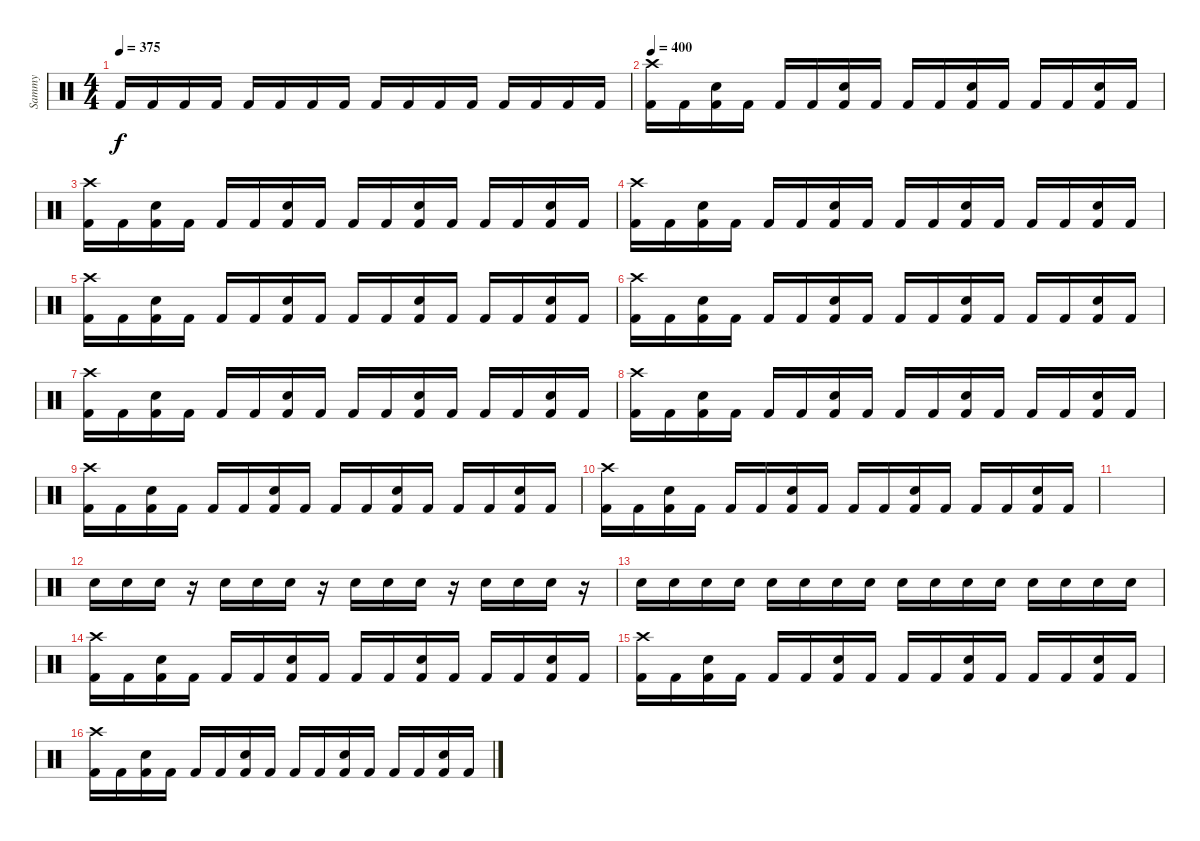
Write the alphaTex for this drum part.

\track ("Sammy" "Sammy") {instrument percussion}
\staff {score}
\articulation defaults
\ts (4 4)
\tempo 375
\clef neutral
\ks c "Kick (hit) 2".16{dy f} "Kick (hit) 2".16 "Kick (hit) 2".16 "Kick (hit) 2".16 "Kick (hit) 2".16 "Kick (hit) 2".16 "Kick (hit) 2".16 "Kick (hit) 2".16 "Kick (hit) 2".16 "Kick (hit) 2".16 "Kick (hit) 2".16 "Kick (hit) 2".16 "Kick (hit) 2".16 "Kick (hit) 2".16 "Kick (hit) 2".16 "Kick (hit) 2".16
|
\tempo 400
("Crash high (hit)" "Kick (hit) 2").16 "Kick (hit) 2".16 ("Electric Snare (hit)" "Kick (hit) 2").16 "Kick (hit) 2".16 "Kick (hit) 2".16 "Kick (hit) 2".16 ("Electric Snare (hit)" "Kick (hit) 2").16 "Kick (hit) 2".16 "Kick (hit) 2".16 "Kick (hit) 2".16 ("Electric Snare (hit)" "Kick (hit) 2").16 "Kick (hit) 2".16 "Kick (hit) 2".16 "Kick (hit) 2".16 ("Electric Snare (hit)" "Kick (hit) 2").16 "Kick (hit) 2".16 |
("Crash high (hit)" "Kick (hit) 2").16 "Kick (hit) 2".16 ("Electric Snare (hit)" "Kick (hit) 2").16 "Kick (hit) 2".16 "Kick (hit) 2".16 "Kick (hit) 2".16 ("Electric Snare (hit)" "Kick (hit) 2").16 "Kick (hit) 2".16 "Kick (hit) 2".16 "Kick (hit) 2".16 ("Electric Snare (hit)" "Kick (hit) 2").16 "Kick (hit) 2".16 "Kick (hit) 2".16 "Kick (hit) 2".16 ("Electric Snare (hit)" "Kick (hit) 2").16 "Kick (hit) 2".16 |
("Crash high (hit)" "Kick (hit) 2").16 "Kick (hit) 2".16 ("Electric Snare (hit)" "Kick (hit) 2").16 "Kick (hit) 2".16 "Kick (hit) 2".16 "Kick (hit) 2".16 ("Electric Snare (hit)" "Kick (hit) 2").16 "Kick (hit) 2".16 "Kick (hit) 2".16 "Kick (hit) 2".16 ("Electric Snare (hit)" "Kick (hit) 2").16 "Kick (hit) 2".16 "Kick (hit) 2".16 "Kick (hit) 2".16 ("Electric Snare (hit)" "Kick (hit) 2").16 "Kick (hit) 2".16 |
("Crash high (hit)" "Kick (hit) 2").16 "Kick (hit) 2".16 ("Electric Snare (hit)" "Kick (hit) 2").16 "Kick (hit) 2".16 "Kick (hit) 2".16 "Kick (hit) 2".16 ("Electric Snare (hit)" "Kick (hit) 2").16 "Kick (hit) 2".16 "Kick (hit) 2".16 "Kick (hit) 2".16 ("Electric Snare (hit)" "Kick (hit) 2").16 "Kick (hit) 2".16 "Kick (hit) 2".16 "Kick (hit) 2".16 ("Electric Snare (hit)" "Kick (hit) 2").16 "Kick (hit) 2".16 |
("Crash high (hit)" "Kick (hit) 2").16 "Kick (hit) 2".16 ("Electric Snare (hit)" "Kick (hit) 2").16 "Kick (hit) 2".16 "Kick (hit) 2".16 "Kick (hit) 2".16 ("Electric Snare (hit)" "Kick (hit) 2").16 "Kick (hit) 2".16 "Kick (hit) 2".16 "Kick (hit) 2".16 ("Electric Snare (hit)" "Kick (hit) 2").16 "Kick (hit) 2".16 "Kick (hit) 2".16 "Kick (hit) 2".16 ("Electric Snare (hit)" "Kick (hit) 2").16 "Kick (hit) 2".16 |
("Crash high (hit)" "Kick (hit) 2").16 "Kick (hit) 2".16 ("Electric Snare (hit)" "Kick (hit) 2").16 "Kick (hit) 2".16 "Kick (hit) 2".16 "Kick (hit) 2".16 ("Electric Snare (hit)" "Kick (hit) 2").16 "Kick (hit) 2".16 "Kick (hit) 2".16 "Kick (hit) 2".16 ("Electric Snare (hit)" "Kick (hit) 2").16 "Kick (hit) 2".16 "Kick (hit) 2".16 "Kick (hit) 2".16 ("Electric Snare (hit)" "Kick (hit) 2").16 "Kick (hit) 2".16 |
("Crash high (hit)" "Kick (hit) 2").16 "Kick (hit) 2".16 ("Electric Snare (hit)" "Kick (hit) 2").16 "Kick (hit) 2".16 "Kick (hit) 2".16 "Kick (hit) 2".16 ("Electric Snare (hit)" "Kick (hit) 2").16 "Kick (hit) 2".16 "Kick (hit) 2".16 "Kick (hit) 2".16 ("Electric Snare (hit)" "Kick (hit) 2").16 "Kick (hit) 2".16 "Kick (hit) 2".16 "Kick (hit) 2".16 ("Electric Snare (hit)" "Kick (hit) 2").16 "Kick (hit) 2".16 |
("Crash high (hit)" "Kick (hit) 2").16 "Kick (hit) 2".16 ("Electric Snare (hit)" "Kick (hit) 2").16 "Kick (hit) 2".16 "Kick (hit) 2".16 "Kick (hit) 2".16 ("Electric Snare (hit)" "Kick (hit) 2").16 "Kick (hit) 2".16 "Kick (hit) 2".16 "Kick (hit) 2".16 ("Electric Snare (hit)" "Kick (hit) 2").16 "Kick (hit) 2".16 "Kick (hit) 2".16 "Kick (hit) 2".16 ("Electric Snare (hit)" "Kick (hit) 2").16 "Kick (hit) 2".16 |
("Crash high (hit)" "Kick (hit) 2").16 "Kick (hit) 2".16 ("Electric Snare (hit)" "Kick (hit) 2").16 "Kick (hit) 2".16 "Kick (hit) 2".16 "Kick (hit) 2".16 ("Electric Snare (hit)" "Kick (hit) 2").16 "Kick (hit) 2".16 "Kick (hit) 2".16 "Kick (hit) 2".16 ("Electric Snare (hit)" "Kick (hit) 2").16 "Kick (hit) 2".16 "Kick (hit) 2".16 "Kick (hit) 2".16 ("Electric Snare (hit)" "Kick (hit) 2").16 "Kick (hit) 2".16 |
|
"Electric Snare (hit)".16 "Electric Snare (hit)".16 "Electric Snare (hit)".16 r.16 "Electric Snare (hit)".16 "Electric Snare (hit)".16 "Electric Snare (hit)".16 r.16 "Electric Snare (hit)".16 "Electric Snare (hit)".16 "Electric Snare (hit)".16 r.16 "Electric Snare (hit)".16 "Electric Snare (hit)".16 "Electric Snare (hit)".16 r.16 |
"Electric Snare (hit)".16 "Electric Snare (hit)".16 "Electric Snare (hit)".16 "Electric Snare (hit)".16 "Electric Snare (hit)".16 "Electric Snare (hit)".16 "Electric Snare (hit)".16 "Electric Snare (hit)".16 "Electric Snare (hit)".16 "Electric Snare (hit)".16 "Electric Snare (hit)".16 "Electric Snare (hit)".16 "Electric Snare (hit)".16 "Electric Snare (hit)".16 "Electric Snare (hit)".16 "Electric Snare (hit)".16 |
("Crash high (hit)" "Kick (hit) 2").16 "Kick (hit) 2".16 ("Electric Snare (hit)" "Kick (hit) 2").16 "Kick (hit) 2".16 "Kick (hit) 2".16 "Kick (hit) 2".16 ("Electric Snare (hit)" "Kick (hit) 2").16 "Kick (hit) 2".16 "Kick (hit) 2".16 "Kick (hit) 2".16 ("Electric Snare (hit)" "Kick (hit) 2").16 "Kick (hit) 2".16 "Kick (hit) 2".16 "Kick (hit) 2".16 ("Electric Snare (hit)" "Kick (hit) 2").16 "Kick (hit) 2".16 |
("Crash high (hit)" "Kick (hit) 2").16 "Kick (hit) 2".16 ("Electric Snare (hit)" "Kick (hit) 2").16 "Kick (hit) 2".16 "Kick (hit) 2".16 "Kick (hit) 2".16 ("Electric Snare (hit)" "Kick (hit) 2").16 "Kick (hit) 2".16 "Kick (hit) 2".16 "Kick (hit) 2".16 ("Electric Snare (hit)" "Kick (hit) 2").16 "Kick (hit) 2".16 "Kick (hit) 2".16 "Kick (hit) 2".16 ("Electric Snare (hit)" "Kick (hit) 2").16 "Kick (hit) 2".16 |
("Crash high (hit)" "Kick (hit) 2").16 "Kick (hit) 2".16 ("Electric Snare (hit)" "Kick (hit) 2").16 "Kick (hit) 2".16 "Kick (hit) 2".16 "Kick (hit) 2".16 ("Electric Snare (hit)" "Kick (hit) 2").16 "Kick (hit) 2".16 "Kick (hit) 2".16 "Kick (hit) 2".16 ("Electric Snare (hit)" "Kick (hit) 2").16 "Kick (hit) 2".16 "Kick (hit) 2".16 "Kick (hit) 2".16 ("Electric Snare (hit)" "Kick (hit) 2").16 "Kick (hit) 2".16
